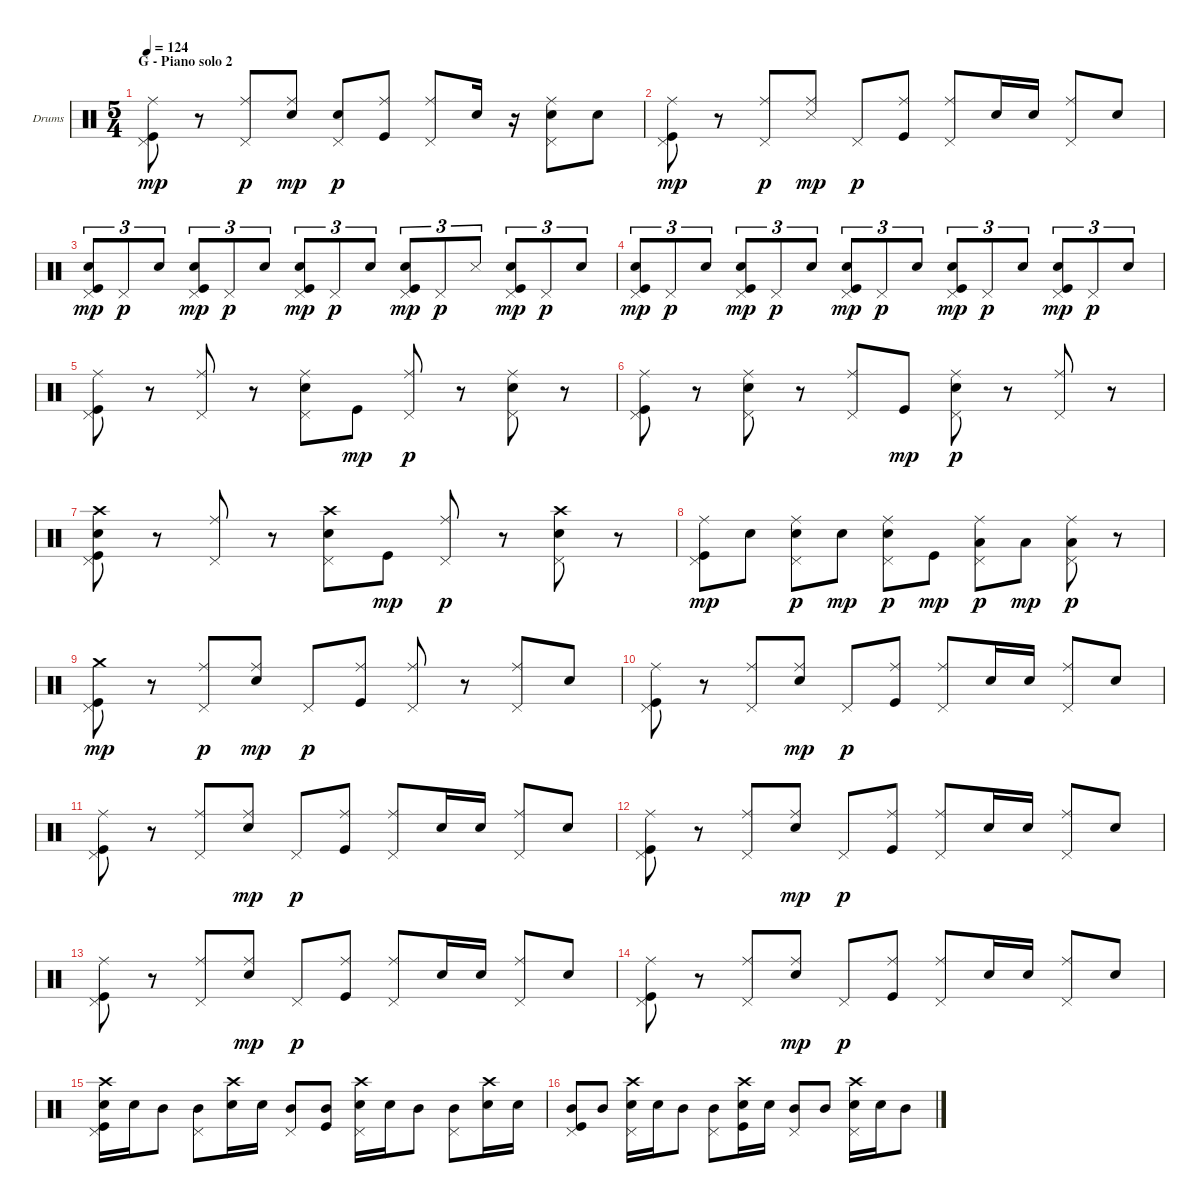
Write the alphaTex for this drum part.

\bracketExtendMode groupsimilarinstruments
\firstSystemTrackNameOrientation horizontal
\otherSystemsTrackNameOrientation horizontal
\track ("Drumkit" "Drums") {instrument percussion}
\staff {score}
\articulation defaults
\ts (5 4)
\section ("" "G - Piano solo 2")
\tempo 124
\clef neutral
\ks aminor
("Ride (middle)" "Pedal Hi-Hat (hit)" "Kick (hit)").8{dy mp} r.8 ("Ride (middle)" "Pedal Hi-Hat (hit)").8{dy p} ("Ride (middle)" "Snare (hit) 2").8{dy mp} ("Snare (hit) 2" "Pedal Hi-Hat (hit)").8{dy p} ("Ride (middle)" "Kick (hit)").8 ("Ride (middle)" "Pedal Hi-Hat (hit)").8 "Snare (hit) 2".16 r.16 ("Ride (middle)" "Snare (hit) 2" "Pedal Hi-Hat (hit)").8 "Snare (hit) 2".8 |
("Ride (middle)" "Pedal Hi-Hat (hit)" "Kick (hit)").8{dy mp} r.8 ("Ride (middle)" "Pedal Hi-Hat (hit)").8{dy p} ("Ride (middle)" "Snare (side stick) 3").8{dy mp} "Pedal Hi-Hat (hit)".8{dy p} ("Ride (middle)" "Kick (hit)").8 ("Ride (middle)" "Pedal Hi-Hat (hit)").8 "Snare (hit) 2".16 "Snare (hit) 2".16 ("Ride (middle)" "Pedal Hi-Hat (hit)").8 "Snare (hit) 2".8 |
("Snare (hit) 2" "Pedal Hi-Hat (hit)" "Kick (hit)").8{tu (3 2) dy mp} "Pedal Hi-Hat (hit)".8{tu (3 2) dy p} "Snare (hit) 2".8{tu (3 2)} ("Snare (hit) 2" "Pedal Hi-Hat (hit)" "Kick (hit)").8{tu (3 2) dy mp} "Pedal Hi-Hat (hit)".8{tu (3 2) dy p} "Snare (hit) 2".8{tu (3 2)} ("Snare (hit) 2" "Pedal Hi-Hat (hit)" "Kick (hit)").8{tu (3 2) dy mp} "Pedal Hi-Hat (hit)".8{tu (3 2) dy p} "Snare (hit) 2".8{tu (3 2)} ("Snare (hit) 2" "Pedal Hi-Hat (hit)" "Kick (hit)").8{tu (3 2) dy mp} "Pedal Hi-Hat (hit)".8{tu (3 2) dy p} "Snare (side stick) 3".8{tu (3 2)} ("Snare (hit) 2" "Pedal Hi-Hat (hit)" "Kick (hit)").8{tu (3 2) dy mp} "Pedal Hi-Hat (hit)".8{tu (3 2) dy p} "Snare (hit) 2".8{tu (3 2)} |
("Snare (hit) 2" "Pedal Hi-Hat (hit)" "Kick (hit)").8{tu (3 2) dy mp} "Pedal Hi-Hat (hit)".8{tu (3 2) dy p} "Snare (hit) 2".8{tu (3 2)} ("Snare (hit) 2" "Pedal Hi-Hat (hit)" "Kick (hit)").8{tu (3 2) dy mp} "Pedal Hi-Hat (hit)".8{tu (3 2) dy p} "Snare (hit) 2".8{tu (3 2)} ("Snare (hit) 2" "Pedal Hi-Hat (hit)" "Kick (hit)").8{tu (3 2) dy mp} "Pedal Hi-Hat (hit)".8{tu (3 2) dy p} "Snare (hit) 2".8{tu (3 2)} ("Snare (hit) 2" "Pedal Hi-Hat (hit)" "Kick (hit)").8{tu (3 2) dy mp} "Pedal Hi-Hat (hit)".8{tu (3 2) dy p} "Snare (hit) 2".8{tu (3 2)} ("Snare (hit) 2" "Pedal Hi-Hat (hit)" "Kick (hit)").8{tu (3 2) dy mp} "Pedal Hi-Hat (hit)".8{tu (3 2) dy p} "Snare (hit) 2".8{tu (3 2)} |
("Ride (middle)" "Pedal Hi-Hat (hit)" "Kick (hit)").8 r.8 ("Ride (middle)" "Pedal Hi-Hat (hit)").8 r.8 ("Ride (middle)" "Snare (hit) 2" "Pedal Hi-Hat (hit)").8 "Kick (hit)".8{dy mp} ("Ride (middle)" "Pedal Hi-Hat (hit)").8{dy p} r.8 ("Ride (middle)" "Snare (hit) 2" "Pedal Hi-Hat (hit)").8 r.8 |
("Ride (middle)" "Pedal Hi-Hat (hit)" "Kick (hit)").8 r.8 ("Ride (middle)" "Snare (hit) 2" "Pedal Hi-Hat (hit)").8 r.8 ("Ride (middle)" "Pedal Hi-Hat (hit)").8 "Kick (hit)".8{dy mp} ("Ride (middle)" "Snare (hit) 2" "Pedal Hi-Hat (hit)").8{dy p} r.8 ("Ride (middle)" "Pedal Hi-Hat (hit)").8 r.8 |
("Crash high (hit)" "Snare (hit) 2" "Pedal Hi-Hat (hit)" "Kick (hit)").8 r.8 ("Ride (middle)" "Pedal Hi-Hat (hit)").8 r.8 ("Crash high (hit)" "Snare (hit) 2" "Pedal Hi-Hat (hit)").8 "Kick (hit)".8{dy mp} ("Ride (middle)" "Pedal Hi-Hat (hit)").8{dy p} r.8 ("Crash high (hit)" "Snare (hit) 2" "Pedal Hi-Hat (hit)").8 r.8 |
("Ride (middle)" "Pedal Hi-Hat (hit)" "Kick (hit)").8{dy mp} "Snare (hit) 2".8 ("Ride (middle)" "Snare (hit) 2" "Pedal Hi-Hat (hit)").8{dy p} "Snare (hit) 2".8{dy mp} ("Ride (middle)" "Snare (hit) 2" "Pedal Hi-Hat (hit)").8{dy p} "Kick (hit)".8{dy mp} ("Ride (middle)" "Low Tom (hit)" "Pedal Hi-Hat (hit)").8{dy p} "Low Tom (hit)".8{dy mp} ("Ride (middle)" "Low Tom (hit)" "Pedal Hi-Hat (hit)").8{dy p} r.8 |
("Crash medium (hit)" "Pedal Hi-Hat (hit)" "Kick (hit)").8{dy mp} r.8 ("Ride (middle)" "Pedal Hi-Hat (hit)").8{dy p} ("Ride (middle)" "Snare (hit) 2").8{dy mp} "Pedal Hi-Hat (hit)".8{dy p} ("Ride (middle)" "Kick (hit)").8 ("Ride (middle)" "Pedal Hi-Hat (hit)").8 r.8 ("Ride (middle)" "Pedal Hi-Hat (hit)").8 "Snare (hit) 2".8 |
("Ride (middle)" "Pedal Hi-Hat (hit)" "Kick (hit)").8 r.8 ("Ride (middle)" "Pedal Hi-Hat (hit)").8 ("Ride (middle)" "Snare (hit) 2").8{dy mp} "Pedal Hi-Hat (hit)".8{dy p} ("Ride (middle)" "Kick (hit)").8 ("Ride (middle)" "Pedal Hi-Hat (hit)").8 "Snare (hit) 2".16 "Snare (hit) 2".16 ("Ride (middle)" "Pedal Hi-Hat (hit)").8 "Snare (hit) 2".8 |
("Ride (middle)" "Pedal Hi-Hat (hit)" "Kick (hit)").8 r.8 ("Ride (middle)" "Pedal Hi-Hat (hit)").8 ("Ride (middle)" "Snare (hit) 2").8{dy mp} "Pedal Hi-Hat (hit)".8{dy p} ("Ride (middle)" "Kick (hit)").8 ("Ride (middle)" "Pedal Hi-Hat (hit)").8 "Snare (hit) 2".16 "Snare (hit) 2".16 ("Ride (middle)" "Pedal Hi-Hat (hit)").8 "Snare (hit) 2".8 |
("Ride (middle)" "Pedal Hi-Hat (hit)" "Kick (hit)").8 r.8 ("Ride (middle)" "Pedal Hi-Hat (hit)").8 ("Ride (middle)" "Snare (hit) 2").8{dy mp} "Pedal Hi-Hat (hit)".8{dy p} ("Ride (middle)" "Kick (hit)").8 ("Ride (middle)" "Pedal Hi-Hat (hit)").8 "Snare (hit) 2".16 "Snare (hit) 2".16 ("Ride (middle)" "Pedal Hi-Hat (hit)").8 "Snare (hit) 2".8 |
("Ride (middle)" "Pedal Hi-Hat (hit)" "Kick (hit)").8 r.8 ("Ride (middle)" "Pedal Hi-Hat (hit)").8 ("Ride (middle)" "Snare (hit) 2").8{dy mp} "Pedal Hi-Hat (hit)".8{dy p} ("Ride (middle)" "Kick (hit)").8 ("Ride (middle)" "Pedal Hi-Hat (hit)").8 "Snare (hit) 2".16 "Snare (hit) 2".16 ("Ride (middle)" "Pedal Hi-Hat (hit)").8 "Snare (hit) 2".8 |
("Ride (middle)" "Pedal Hi-Hat (hit)" "Kick (hit)").8 r.8 ("Ride (middle)" "Pedal Hi-Hat (hit)").8 ("Ride (middle)" "Snare (hit) 2").8{dy mp} "Pedal Hi-Hat (hit)".8{dy p} ("Ride (middle)" "Kick (hit)").8 ("Ride (middle)" "Pedal Hi-Hat (hit)").8 "Snare (hit) 2".16 "Snare (hit) 2".16 ("Ride (middle)" "Pedal Hi-Hat (hit)").8 "Snare (hit) 2".8 |
("Crash high (hit)" "Snare (hit) 2" "Pedal Hi-Hat (hit)" "Kick (hit)").16 "Snare (hit) 2".16 "Mid Tom (hit)".8 ("Mid Tom (hit)" "Pedal Hi-Hat (hit)").8 ("Crash high (hit)" "Snare (hit) 2").16 "Snare (hit) 2".16 ("Mid Tom (hit)" "Pedal Hi-Hat (hit)").8 ("Mid Tom (hit)" "Kick (hit)").8 ("Crash high (hit)" "Snare (hit) 2" "Pedal Hi-Hat (hit)").16 "Snare (hit) 2".16 "Mid Tom (hit)".8 ("Mid Tom (hit)" "Pedal Hi-Hat (hit)").8 ("Crash high (hit)" "Snare (hit) 2").16 "Snare (hit) 2".16 |
("Mid Tom (hit)" "Pedal Hi-Hat (hit)" "Kick (hit)").8 "Mid Tom (hit)".8 ("Crash high (hit)" "Snare (hit) 2" "Pedal Hi-Hat (hit)").16 "Snare (hit) 2".16 "Mid Tom (hit)".8 ("Mid Tom (hit)" "Pedal Hi-Hat (hit)").8 ("Crash high (hit)" "Snare (hit) 2" "Kick (hit)").16 "Snare (hit) 2".16 ("Mid Tom (hit)" "Pedal Hi-Hat (hit)").8 "Mid Tom (hit)".8 ("Crash high (hit)" "Snare (hit) 2" "Pedal Hi-Hat (hit)").16 "Snare (hit) 2".16 "Mid Tom (hit)".8
